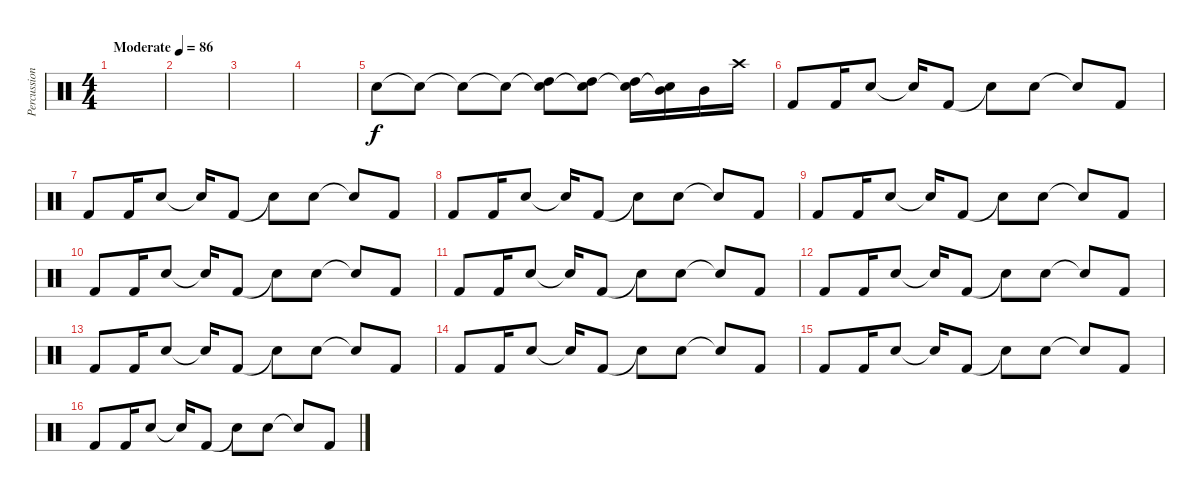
\track ("Percussion" "Percussion") {instrument percussion}
\staff {score}
\articulation defaults
\ts (4 4)
\tempo (86 "Moderate")
\clef neutral
\ks c
|
|
|
|
"Snare (hit)".8 "Snare (hit)"{t}.8 "Snare (hit)"{t}.8 "Snare (hit)"{t}.8 ("Snare (hit)"{t} "High Tom (hit)").8 ("Snare (hit)"{t} "High Tom (hit)").8 ("Snare (hit)"{t} "High Tom (hit)").16 ("Snare (hit)"{t} "Mid Tom (hit)").16 "Mid Tom (hit)".16 "Crash high (hit)".16 |
"Kick (hit) 2".8 "Kick (hit) 2".16 "Snare (hit) 2".8 "Snare (hit)"{t}.16 "Kick (hit) 2".8 "Snare (hit)"{t}.8 "Snare (hit) 2".8 "Snare (hit)"{t}.8 "Kick (hit) 2".8 |
"Kick (hit) 2".8 "Kick (hit) 2".16 "Snare (hit) 2".8 "Snare (hit)"{t}.16 "Kick (hit) 2".8 "Snare (hit)"{t}.8 "Snare (hit) 2".8 "Snare (hit)"{t}.8 "Kick (hit) 2".8 |
"Kick (hit) 2".8 "Kick (hit) 2".16 "Snare (hit) 2".8 "Snare (hit)"{t}.16 "Kick (hit) 2".8 "Snare (hit)"{t}.8 "Snare (hit) 2".8 "Snare (hit)"{t}.8 "Kick (hit) 2".8 |
"Kick (hit) 2".8 "Kick (hit) 2".16 "Snare (hit) 2".8 "Snare (hit)"{t}.16 "Kick (hit) 2".8 "Snare (hit)"{t}.8 "Snare (hit) 2".8 "Snare (hit)"{t}.8 "Kick (hit) 2".8 |
"Kick (hit) 2".8 "Kick (hit) 2".16 "Snare (hit) 2".8 "Snare (hit)"{t}.16 "Kick (hit) 2".8 "Snare (hit)"{t}.8 "Snare (hit) 2".8 "Snare (hit)"{t}.8 "Kick (hit) 2".8 |
"Kick (hit) 2".8 "Kick (hit) 2".16 "Snare (hit) 2".8 "Snare (hit)"{t}.16 "Kick (hit) 2".8 "Snare (hit)"{t}.8 "Snare (hit) 2".8 "Snare (hit)"{t}.8 "Kick (hit) 2".8 |
"Kick (hit) 2".8 "Kick (hit) 2".16 "Snare (hit) 2".8 "Snare (hit)"{t}.16 "Kick (hit) 2".8 "Snare (hit)"{t}.8 "Snare (hit) 2".8 "Snare (hit)"{t}.8 "Kick (hit) 2".8 |
"Kick (hit) 2".8 "Kick (hit) 2".16 "Snare (hit) 2".8 "Snare (hit)"{t}.16 "Kick (hit) 2".8 "Snare (hit)"{t}.8 "Snare (hit) 2".8 "Snare (hit)"{t}.8 "Kick (hit) 2".8 |
"Kick (hit) 2".8 "Kick (hit) 2".16 "Snare (hit) 2".8 "Snare (hit)"{t}.16 "Kick (hit) 2".8 "Snare (hit)"{t}.8 "Snare (hit) 2".8 "Snare (hit)"{t}.8 "Kick (hit) 2".8 |
"Kick (hit) 2".8 "Kick (hit) 2".16 "Snare (hit) 2".8 "Snare (hit)"{t}.16 "Kick (hit) 2".8 "Snare (hit)"{t}.8 "Snare (hit) 2".8 "Snare (hit)"{t}.8 "Kick (hit) 2".8 |
"Kick (hit) 2".8 "Kick (hit) 2".16 "Snare (hit) 2".8 "Snare (hit)"{t}.16 "Kick (hit) 2".8 "Snare (hit)"{t}.8 "Snare (hit) 2".8 "Snare (hit)"{t}.8 "Kick (hit) 2".8
